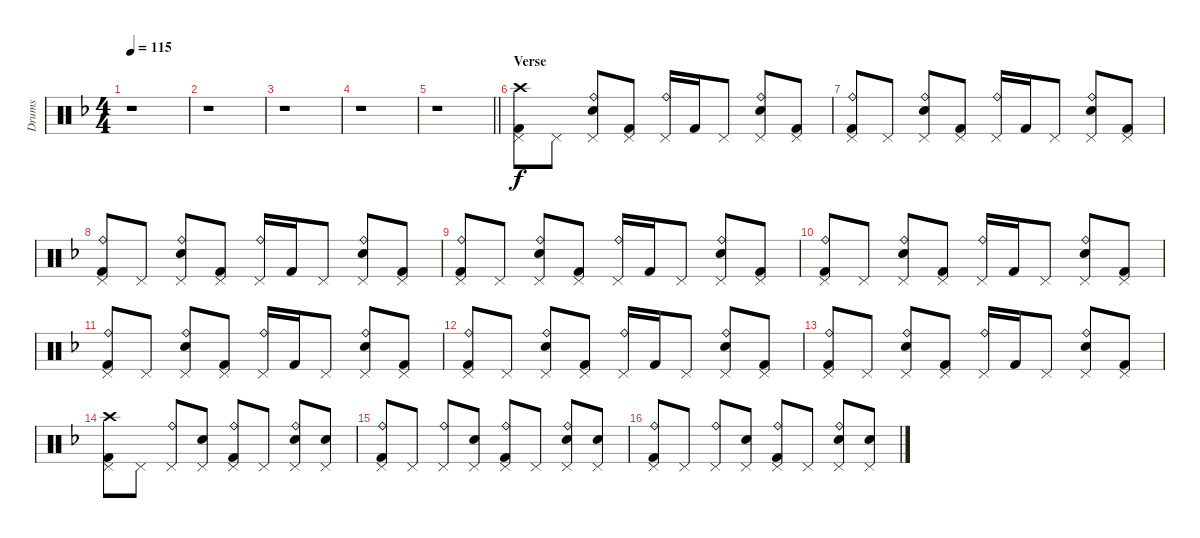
\track ("Drums" "Drums") {instrument percussion}
\staff {score}
\articulation defaults
\ts (4 4)
\tempo 115
\clef neutral
\ks dminor
r.1{dy f} |
r.1 |
r.1 |
r.1 |
\barLineRight lightlight
r.1 |
\section ("" "Verse")
("Crash high (hit)" "Pedal Hi-Hat (hit)" "Kick (hit) 2").8 "Pedal Hi-Hat (hit)".8 ("Ride (bell)" "Electric Snare (hit)" "Pedal Hi-Hat (hit)").8 ("Pedal Hi-Hat (hit)" "Kick (hit) 2").8 ("Ride (bell)" "Pedal Hi-Hat (hit)").16 "Kick (hit) 2".16 "Pedal Hi-Hat (hit)".8 ("Ride (bell)" "Electric Snare (hit)" "Pedal Hi-Hat (hit)").8 ("Pedal Hi-Hat (hit)" "Kick (hit) 2").8 |
("Ride (bell)" "Pedal Hi-Hat (hit)" "Kick (hit) 2").8 "Pedal Hi-Hat (hit)".8 ("Ride (bell)" "Electric Snare (hit)" "Pedal Hi-Hat (hit)").8 ("Pedal Hi-Hat (hit)" "Kick (hit) 2").8 ("Ride (bell)" "Pedal Hi-Hat (hit)").16 "Kick (hit) 2".16 "Pedal Hi-Hat (hit)".8 ("Ride (bell)" "Electric Snare (hit)" "Pedal Hi-Hat (hit)").8 ("Pedal Hi-Hat (hit)" "Kick (hit) 2").8 |
("Ride (bell)" "Pedal Hi-Hat (hit)" "Kick (hit) 2").8 "Pedal Hi-Hat (hit)".8 ("Ride (bell)" "Electric Snare (hit)" "Pedal Hi-Hat (hit)").8 ("Pedal Hi-Hat (hit)" "Kick (hit) 2").8 ("Ride (bell)" "Pedal Hi-Hat (hit)").16 "Kick (hit) 2".16 "Pedal Hi-Hat (hit)".8 ("Ride (bell)" "Electric Snare (hit)" "Pedal Hi-Hat (hit)").8 ("Pedal Hi-Hat (hit)" "Kick (hit) 2").8 |
("Ride (bell)" "Pedal Hi-Hat (hit)" "Kick (hit) 2").8 "Pedal Hi-Hat (hit)".8 ("Ride (bell)" "Electric Snare (hit)" "Pedal Hi-Hat (hit)").8 ("Pedal Hi-Hat (hit)" "Kick (hit) 2").8 ("Ride (bell)" "Pedal Hi-Hat (hit)").16 "Kick (hit) 2".16 "Pedal Hi-Hat (hit)".8 ("Ride (bell)" "Electric Snare (hit)" "Pedal Hi-Hat (hit)").8 ("Pedal Hi-Hat (hit)" "Kick (hit) 2").8 |
("Ride (bell)" "Pedal Hi-Hat (hit)" "Kick (hit) 2").8 "Pedal Hi-Hat (hit)".8 ("Ride (bell)" "Electric Snare (hit)" "Pedal Hi-Hat (hit)").8 ("Pedal Hi-Hat (hit)" "Kick (hit) 2").8 ("Ride (bell)" "Pedal Hi-Hat (hit)").16 "Kick (hit) 2".16 "Pedal Hi-Hat (hit)".8 ("Ride (bell)" "Electric Snare (hit)" "Pedal Hi-Hat (hit)").8 ("Pedal Hi-Hat (hit)" "Kick (hit) 2").8 |
("Ride (bell)" "Pedal Hi-Hat (hit)" "Kick (hit) 2").8 "Pedal Hi-Hat (hit)".8 ("Ride (bell)" "Electric Snare (hit)" "Pedal Hi-Hat (hit)").8 ("Pedal Hi-Hat (hit)" "Kick (hit) 2").8 ("Ride (bell)" "Pedal Hi-Hat (hit)").16 "Kick (hit) 2".16 "Pedal Hi-Hat (hit)".8 ("Ride (bell)" "Electric Snare (hit)" "Pedal Hi-Hat (hit)").8 ("Pedal Hi-Hat (hit)" "Kick (hit) 2").8 |
("Ride (bell)" "Pedal Hi-Hat (hit)" "Kick (hit) 2").8 "Pedal Hi-Hat (hit)".8 ("Ride (bell)" "Electric Snare (hit)" "Pedal Hi-Hat (hit)").8 ("Pedal Hi-Hat (hit)" "Kick (hit) 2").8 ("Ride (bell)" "Pedal Hi-Hat (hit)").16 "Kick (hit) 2".16 "Pedal Hi-Hat (hit)".8 ("Ride (bell)" "Electric Snare (hit)" "Pedal Hi-Hat (hit)").8 ("Pedal Hi-Hat (hit)" "Kick (hit) 2").8 |
("Ride (bell)" "Pedal Hi-Hat (hit)" "Kick (hit) 2").8 "Pedal Hi-Hat (hit)".8 ("Ride (bell)" "Electric Snare (hit)" "Pedal Hi-Hat (hit)").8 ("Pedal Hi-Hat (hit)" "Kick (hit) 2").8 ("Ride (bell)" "Pedal Hi-Hat (hit)").16 "Kick (hit) 2".16 "Pedal Hi-Hat (hit)".8 ("Ride (bell)" "Electric Snare (hit)" "Pedal Hi-Hat (hit)").8 ("Pedal Hi-Hat (hit)" "Kick (hit) 2").8 |
("Crash high (hit)" "Pedal Hi-Hat (hit)" "Kick (hit) 2").8 "Pedal Hi-Hat (hit)".8 ("Ride (bell)" "Pedal Hi-Hat (hit)").8 ("Electric Snare (hit)" "Pedal Hi-Hat (hit)").8 ("Ride (bell)" "Pedal Hi-Hat (hit)" "Kick (hit) 2").8 "Pedal Hi-Hat (hit)".8 ("Ride (bell)" "Electric Snare (hit)" "Pedal Hi-Hat (hit)").8 ("Electric Snare (hit)" "Pedal Hi-Hat (hit)").8 |
("Ride (bell)" "Pedal Hi-Hat (hit)" "Kick (hit) 2").8 "Pedal Hi-Hat (hit)".8 ("Ride (bell)" "Pedal Hi-Hat (hit)").8 ("Electric Snare (hit)" "Pedal Hi-Hat (hit)").8 ("Ride (bell)" "Pedal Hi-Hat (hit)" "Kick (hit) 2").8 "Pedal Hi-Hat (hit)".8 ("Ride (bell)" "Electric Snare (hit)" "Pedal Hi-Hat (hit)").8 ("Electric Snare (hit)" "Pedal Hi-Hat (hit)").8 |
("Ride (bell)" "Pedal Hi-Hat (hit)" "Kick (hit) 2").8 "Pedal Hi-Hat (hit)".8 ("Ride (bell)" "Pedal Hi-Hat (hit)").8 ("Electric Snare (hit)" "Pedal Hi-Hat (hit)").8 ("Ride (bell)" "Pedal Hi-Hat (hit)" "Kick (hit) 2").8 "Pedal Hi-Hat (hit)".8 ("Ride (bell)" "Electric Snare (hit)" "Pedal Hi-Hat (hit)").8 ("Electric Snare (hit)" "Pedal Hi-Hat (hit)").8
